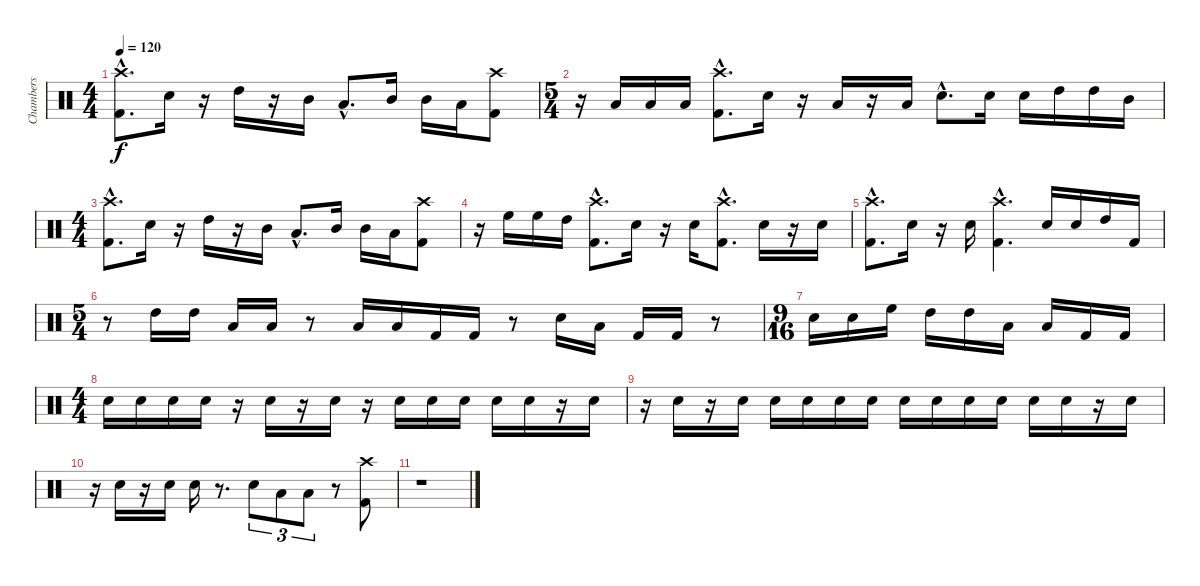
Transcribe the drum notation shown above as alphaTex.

\track ("Chambers" "Chambers") {instrument percussion}
\staff {score}
\articulation defaults
\ts (4 4)
\tempo 120
\clef neutral
\ks c
("Crash high (hit)"{hac} "Kick (hit) 2"{hac}).8{d dy f} "Electric Snare (hit)".16 r.16 "High Tom (hit)".16 r.16 "Mid Tom (hit)".16 "Low Tom (hit)"{hac}.8{d} "Mid Tom (hit)".16 "Mid Tom (hit)".16 "Low Tom (hit)".16 ("Crash high (hit)" "Kick (hit) 2").8 |
\ts (5 4)
r.16 "Low Tom (hit)".16 "Low Tom (hit)".16 "Low Tom (hit)".16 ("Crash high (hit)"{hac} "Kick (hit) 2"{hac}).8{d} "Electric Snare (hit)".16 r.16 "Low Tom (hit)".16 r.16 "Low Tom (hit)".16 "Electric Snare (hit)"{hac}.8{d} "Electric Snare (hit)".16 "Electric Snare (hit)".16 "High Tom (hit)".16 "High Tom (hit)".16 "Mid Tom (hit)".16 |
\ts (4 4)
("Crash high (hit)"{hac} "Kick (hit) 2"{hac}).8{d} "Electric Snare (hit)".16 r.16 "High Tom (hit)".16 r.16 "Mid Tom (hit)".16 "Low Tom (hit)"{hac}.8{d} "Mid Tom (hit)".16 "Mid Tom (hit)".16 "Low Tom (hit)".16 ("Crash high (hit)" "Kick (hit) 2").8 |
r.16 "High Floor Tom (hit)".16 "High Floor Tom (hit)".16 "High Tom (hit)".16 ("Crash high (hit)"{hac} "Kick (hit) 2"{hac}).8{d} "Electric Snare (hit)".16 r.16 "Electric Snare (hit)".16 ("Crash high (hit)"{hac} "Kick (hit) 2"{hac}).8{d} "Electric Snare (hit)".16 r.16 "Electric Snare (hit)".16 |
("Crash high (hit)"{hac} "Kick (hit) 2"{hac}).8{d} "Electric Snare (hit)".16 r.16 "Electric Snare (hit)".16 ("Crash high (hit)"{hac} "Kick (hit) 2"{hac}).4{d} "Electric Snare (hit)".16 "Electric Snare (hit)".16 "High Tom (hit)".16 "Kick (hit) 2".16 |
\ts (5 4)
r.8 "High Tom (hit)".16 "High Tom (hit)".16 "Low Tom (hit)".16 "Low Tom (hit)".16 r.8 "Low Tom (hit)".16 "Low Tom (hit)".16 "Kick (hit) 2".16 "Kick (hit) 2".16 r.8 "Electric Snare (hit)".16 "Low Tom (hit)".16 "Kick (hit) 2".16 "Kick (hit) 2".16 r.8 |
\ts (9 16)
"Electric Snare (hit)".16 "Electric Snare (hit)".16 "High Floor Tom (hit)".16 "High Tom (hit)".16 "High Tom (hit)".16 "Low Tom (hit)".16 "Low Tom (hit)".16 "Kick (hit) 2".16 "Kick (hit) 2".16 |
\ts (4 4)
"Electric Snare (hit)".16 "Electric Snare (hit)".16 "Electric Snare (hit)".16 "Electric Snare (hit)".16 r.16 "Electric Snare (hit)".16 r.16 "Electric Snare (hit)".16 r.16 "Electric Snare (hit)".16 "Electric Snare (hit)".16 "Electric Snare (hit)".16 "Electric Snare (hit)".16 "Electric Snare (hit)".16 r.16 "Electric Snare (hit)".16 |
r.16 "Electric Snare (hit)".16 r.16 "Electric Snare (hit)".16 "Electric Snare (hit)".16 "Electric Snare (hit)".16 "Electric Snare (hit)".16 "Electric Snare (hit)".16 "Electric Snare (hit)".16 "Electric Snare (hit)".16 "Electric Snare (hit)".16 "Electric Snare (hit)".16 "Electric Snare (hit)".16 "Electric Snare (hit)".16 r.16 "Electric Snare (hit)".16 |
r.16 "Electric Snare (hit)".16 r.16 "Electric Snare (hit)".16 "Electric Snare (hit)".16 r.8{d} "Electric Snare (hit)".8{tu (3 2)} "Low Tom (hit)".8{tu (3 2)} "Low Tom (hit)".8{tu (3 2)} r.8 ("Crash high (hit)" "Kick (hit) 2").8 |
r.1
